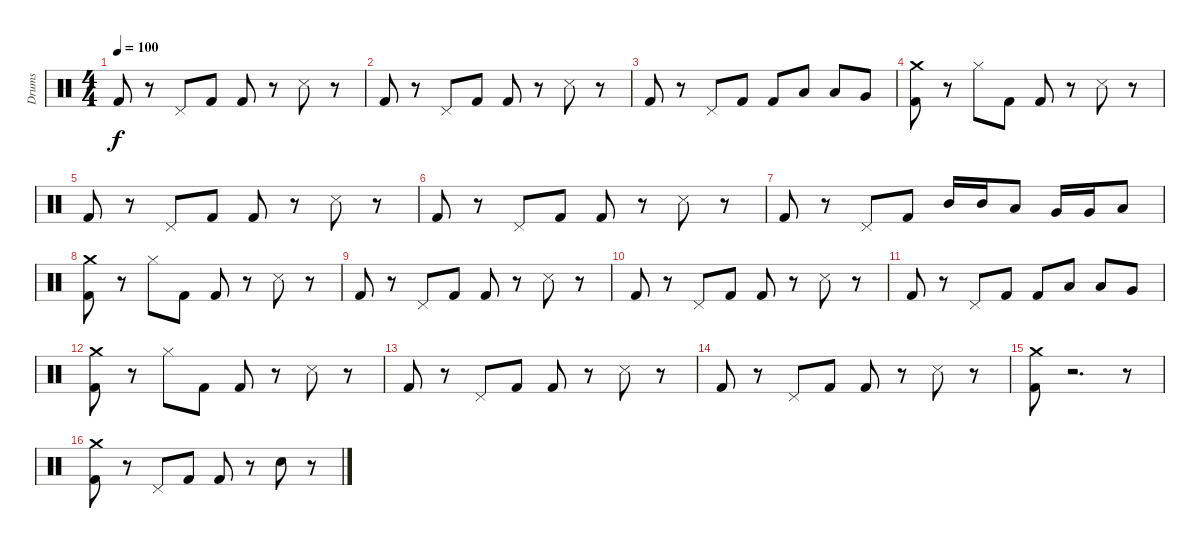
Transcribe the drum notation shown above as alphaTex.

\track ("Drums" "Drums") {instrument percussion}
\staff {score}
\articulation defaults
\ts (4 4)
\tempo 100
\clef neutral
\ks c "Kick (hit) 2".8{dy f}
r.8 "Pedal Hi-Hat (hit)".8 "Kick (hit) 2".8 "Kick (hit) 2".8 r.8 "Snare (side stick) 3".8 r.8 |
"Kick (hit) 2".8 r.8 "Pedal Hi-Hat (hit)".8 "Kick (hit) 2".8 "Kick (hit) 2".8 r.8 "Snare (side stick) 3".8 r.8 |
"Kick (hit) 2".8 r.8 "Pedal Hi-Hat (hit)".8 "Kick (hit) 2".8 "Kick (hit) 2".8 "Low Tom (hit)".8 "Low Tom (hit)".8 "Very Low Tom (hit)".8 |
("Kick (hit) 2" "Crash medium (hit)").8 r.8 "Hi-Hat (closed)".8 "Kick (hit) 2".8 "Kick (hit) 2".8 r.8 "Snare (side stick) 3".8 r.8 |
"Kick (hit) 2".8 r.8 "Pedal Hi-Hat (hit)".8 "Kick (hit) 2".8 "Kick (hit) 2".8 r.8 "Snare (side stick) 3".8 r.8 |
"Kick (hit) 2".8 r.8 "Pedal Hi-Hat (hit)".8 "Kick (hit) 2".8 "Kick (hit) 2".8 r.8 "Snare (side stick) 3".8 r.8 |
"Kick (hit) 2".8 r.8 "Pedal Hi-Hat (hit)".8 "Kick (hit) 2".8 "Mid Tom (hit)".16 "Mid Tom (hit)".16 "Low Tom (hit)".8 "Very Low Tom (hit)".16 "Very Low Tom (hit)".16 "Low Floor Tom (hit)".8 |
("Kick (hit) 2" "Crash medium (hit)").8 r.8 "Hi-Hat (closed)".8 "Kick (hit) 2".8 "Kick (hit) 2".8 r.8 "Snare (side stick) 3".8 r.8 |
"Kick (hit) 2".8 r.8 "Pedal Hi-Hat (hit)".8 "Kick (hit) 2".8 "Kick (hit) 2".8 r.8 "Snare (side stick) 3".8 r.8 |
"Kick (hit) 2".8 r.8 "Pedal Hi-Hat (hit)".8 "Kick (hit) 2".8 "Kick (hit) 2".8 r.8 "Snare (side stick) 3".8 r.8 |
"Kick (hit) 2".8 r.8 "Pedal Hi-Hat (hit)".8 "Kick (hit) 2".8 "Kick (hit) 2".8 "Low Tom (hit)".8 "Low Tom (hit)".8 "Very Low Tom (hit)".8 |
("Kick (hit) 2" "Crash medium (hit)").8 r.8 "Hi-Hat (closed)".8 "Kick (hit) 2".8 "Kick (hit) 2".8 r.8 "Snare (side stick) 3".8 r.8 |
"Kick (hit) 2".8 r.8 "Pedal Hi-Hat (hit)".8 "Kick (hit) 2".8 "Kick (hit) 2".8 r.8 "Snare (side stick) 3".8 r.8 |
"Kick (hit) 2".8 r.8 "Pedal Hi-Hat (hit)".8 "Kick (hit) 2".8 "Kick (hit) 2".8 r.8 "Snare (side stick) 3".8 r.8 |
("Crash medium (hit)" "Kick (hit) 2").8 r.2{d} r.8 |
("Crash medium (hit)" "Kick (hit) 2").8 r.8 "Pedal Hi-Hat (hit)".8 "Kick (hit) 2".8 "Kick (hit) 2".8 r.8 "Snare (hit) 2".8 r.8
